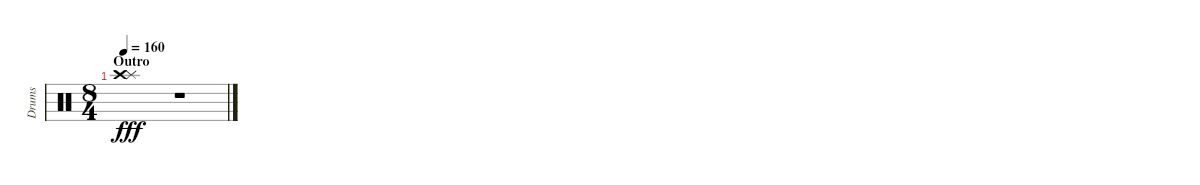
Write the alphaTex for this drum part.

\track ("Drums" "Drums") {instrument percussion}
\staff {score}
\articulation defaults
\ts (8 4)
\section ("" "Outro")
\tempo 160
\clef neutral
\ks c
("Splash (hit)" "Crash high (hit)").1{dy fff} r.1
